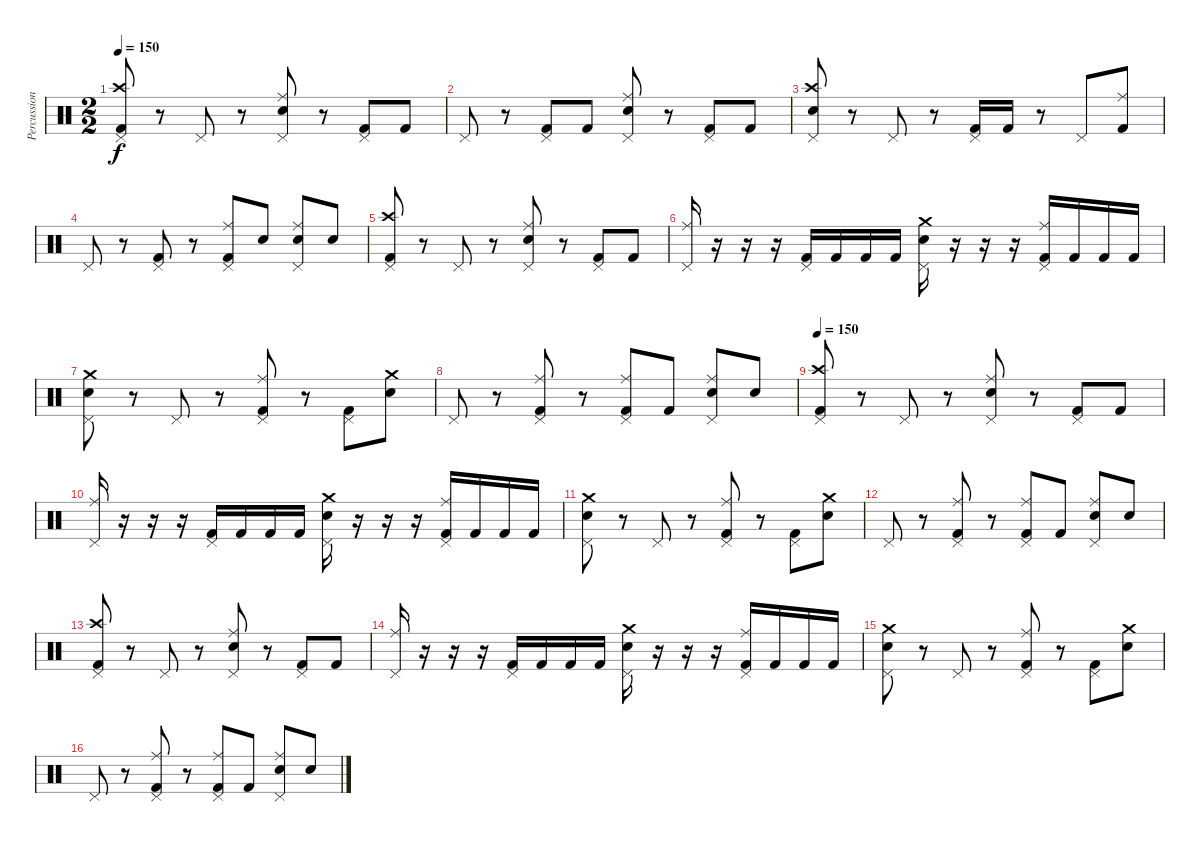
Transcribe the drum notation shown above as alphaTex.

\track ("Percussion" "Percussion") {instrument percussion}
\staff {score}
\articulation defaults
\ts (2 2)
\tempo 150
\clef neutral
\ks c
("Pedal Hi-Hat (hit)" "Crash high (hit)" "Kick (hit) 2").8{dy f} r.8 "Pedal Hi-Hat (hit)".8 r.8 ("Pedal Hi-Hat (hit)" "Ride (middle)" "Snare (hit) 2").8 r.8 ("Pedal Hi-Hat (hit)" "Kick (hit) 2").8 "Kick (hit) 2".8 |
"Pedal Hi-Hat (hit)".8 r.8 ("Pedal Hi-Hat (hit)" "Kick (hit) 2").8 "Kick (hit) 2".8 ("Pedal Hi-Hat (hit)" "Ride (middle)" "Snare (hit) 2").8 r.8 ("Pedal Hi-Hat (hit)" "Kick (hit) 2").8 "Kick (hit) 2".8 |
("Pedal Hi-Hat (hit)" "Crash high (hit)" "Snare (hit) 2").8 r.8 "Pedal Hi-Hat (hit)".8 r.8 ("Pedal Hi-Hat (hit)" "Kick (hit) 2").16 "Kick (hit) 2".16 r.8 "Pedal Hi-Hat (hit)".8 ("Ride (middle)" "Kick (hit) 2").8 |
"Pedal Hi-Hat (hit)".8 r.8 ("Pedal Hi-Hat (hit)" "Kick (hit) 2").8 r.8 ("Pedal Hi-Hat (hit)" "Ride (middle)" "Kick (hit) 2").8 "Snare (hit) 2".8 ("Pedal Hi-Hat (hit)" "Ride (middle)" "Snare (hit) 2").8 "Snare (hit) 2".8 |
("Pedal Hi-Hat (hit)" "Crash high (hit)" "Kick (hit) 2").8 r.8 "Pedal Hi-Hat (hit)".8 r.8 ("Pedal Hi-Hat (hit)" "Ride (middle)" "Snare (hit) 2").8 r.8 ("Pedal Hi-Hat (hit)" "Kick (hit) 2").8 "Kick (hit) 2".8 |
("Pedal Hi-Hat (hit)" "Ride (middle)").16 r.16 r.16 r.16 ("Pedal Hi-Hat (hit)" "Kick (hit) 2").16 "Kick (hit) 2".16 "Kick (hit) 2".16 "Kick (hit) 2".16 ("Pedal Hi-Hat (hit)" "Crash medium (hit)" "Snare (hit) 2").16 r.16 r.16 r.16 ("Pedal Hi-Hat (hit)" "Ride (middle)" "Kick (hit) 2").16 "Kick (hit) 2".16 "Kick (hit) 2".16 "Kick (hit) 2".16 |
("Pedal Hi-Hat (hit)" "Crash medium (hit)" "Snare (hit) 2").8 r.8 "Pedal Hi-Hat (hit)".8 r.8 ("Pedal Hi-Hat (hit)" "Ride (middle)" "Kick (hit) 2").8 r.8 ("Pedal Hi-Hat (hit)" "Kick (hit) 2").8 ("Crash medium (hit)" "Snare (hit) 2").8 |
"Pedal Hi-Hat (hit)".8 r.8 ("Pedal Hi-Hat (hit)" "Ride (middle)" "Kick (hit) 2").8 r.8 ("Pedal Hi-Hat (hit)" "Ride (middle)" "Kick (hit) 2").8 "Kick (hit) 2".8 ("Pedal Hi-Hat (hit)" "Ride (middle)" "Snare (hit) 2").8 "Snare (hit) 2".8 |
\tempo 150
("Pedal Hi-Hat (hit)" "Crash high (hit)" "Kick (hit) 2").8 r.8 "Pedal Hi-Hat (hit)".8 r.8 ("Pedal Hi-Hat (hit)" "Ride (middle)" "Snare (hit) 2").8 r.8 ("Pedal Hi-Hat (hit)" "Kick (hit) 2").8 "Kick (hit) 2".8 |
("Pedal Hi-Hat (hit)" "Ride (middle)").16 r.16 r.16 r.16 ("Pedal Hi-Hat (hit)" "Kick (hit) 2").16 "Kick (hit) 2".16 "Kick (hit) 2".16 "Kick (hit) 2".16 ("Pedal Hi-Hat (hit)" "Crash medium (hit)" "Snare (hit) 2").16 r.16 r.16 r.16 ("Pedal Hi-Hat (hit)" "Ride (middle)" "Kick (hit) 2").16 "Kick (hit) 2".16 "Kick (hit) 2".16 "Kick (hit) 2".16 |
("Pedal Hi-Hat (hit)" "Crash medium (hit)" "Snare (hit) 2").8 r.8 "Pedal Hi-Hat (hit)".8 r.8 ("Pedal Hi-Hat (hit)" "Ride (middle)" "Kick (hit) 2").8 r.8 ("Pedal Hi-Hat (hit)" "Kick (hit) 2").8 ("Crash medium (hit)" "Snare (hit) 2").8 |
"Pedal Hi-Hat (hit)".8 r.8 ("Pedal Hi-Hat (hit)" "Ride (middle)" "Kick (hit) 2").8 r.8 ("Pedal Hi-Hat (hit)" "Ride (middle)" "Kick (hit) 2").8 "Kick (hit) 2".8 ("Pedal Hi-Hat (hit)" "Ride (middle)" "Snare (hit) 2").8 "Snare (hit) 2".8 |
("Pedal Hi-Hat (hit)" "Crash high (hit)" "Kick (hit) 2").8 r.8 "Pedal Hi-Hat (hit)".8 r.8 ("Pedal Hi-Hat (hit)" "Ride (middle)" "Snare (hit) 2").8 r.8 ("Pedal Hi-Hat (hit)" "Kick (hit) 2").8 "Kick (hit) 2".8 |
("Pedal Hi-Hat (hit)" "Ride (middle)").16 r.16 r.16 r.16 ("Pedal Hi-Hat (hit)" "Kick (hit) 2").16 "Kick (hit) 2".16 "Kick (hit) 2".16 "Kick (hit) 2".16 ("Pedal Hi-Hat (hit)" "Crash medium (hit)" "Snare (hit) 2").16 r.16 r.16 r.16 ("Pedal Hi-Hat (hit)" "Ride (middle)" "Kick (hit) 2").16 "Kick (hit) 2".16 "Kick (hit) 2".16 "Kick (hit) 2".16 |
("Pedal Hi-Hat (hit)" "Crash medium (hit)" "Snare (hit) 2").8 r.8 "Pedal Hi-Hat (hit)".8 r.8 ("Pedal Hi-Hat (hit)" "Ride (middle)" "Kick (hit) 2").8 r.8 ("Pedal Hi-Hat (hit)" "Kick (hit) 2").8 ("Crash medium (hit)" "Snare (hit) 2").8 |
"Pedal Hi-Hat (hit)".8 r.8 ("Pedal Hi-Hat (hit)" "Ride (middle)" "Kick (hit) 2").8 r.8 ("Pedal Hi-Hat (hit)" "Ride (middle)" "Kick (hit) 2").8 "Kick (hit) 2".8 ("Pedal Hi-Hat (hit)" "Ride (middle)" "Snare (hit) 2").8 "Snare (hit) 2".8
